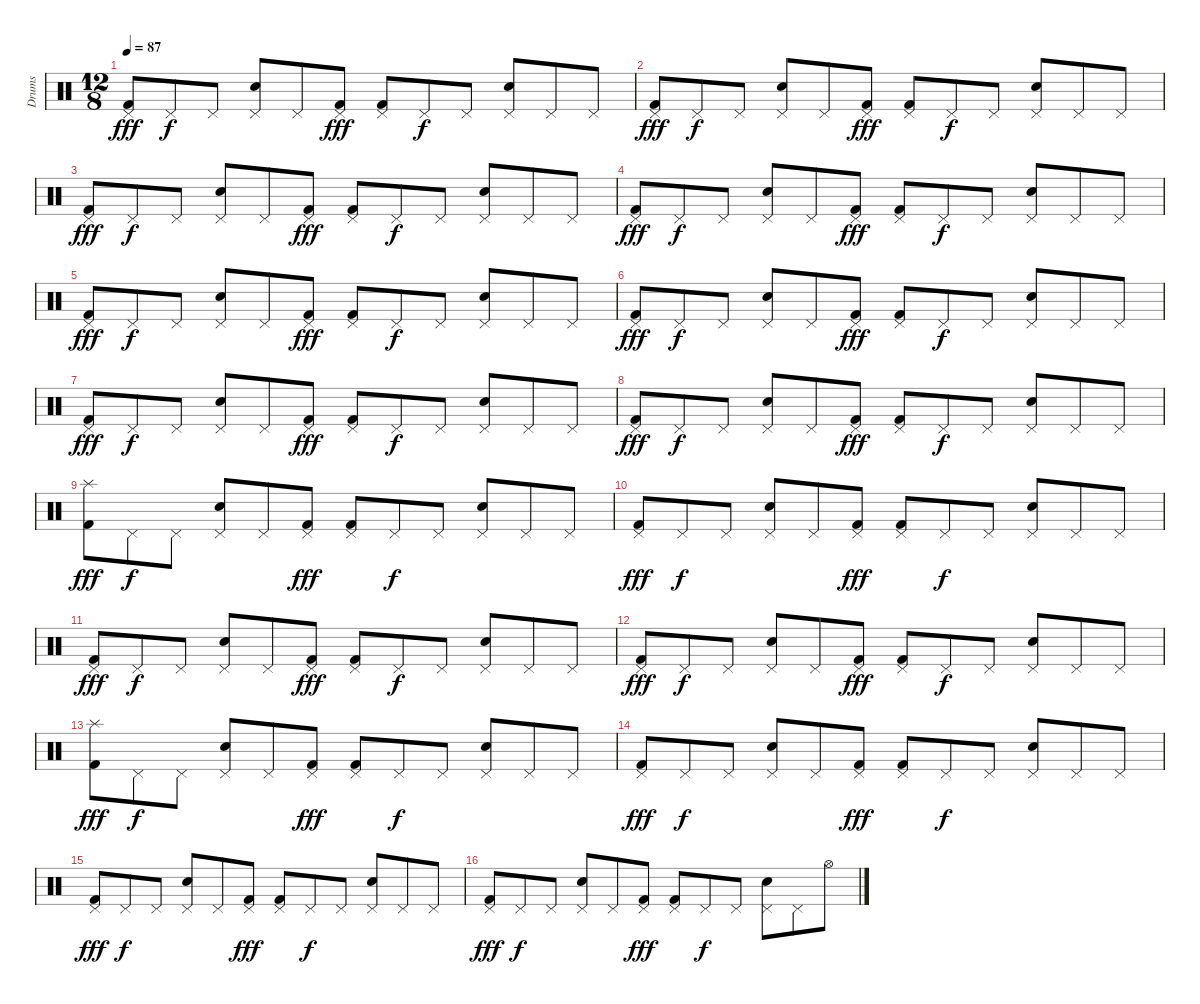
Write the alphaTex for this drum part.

\track ("Drums" "Drums") {instrument percussion}
\staff {score}
\articulation defaults
\ts (12 8)
\tempo 87
\clef neutral
\ks c
("Pedal Hi-Hat (hit)" "Kick (hit) 2").8{dy fff} "Pedal Hi-Hat (hit)".8{dy f} "Pedal Hi-Hat (hit)".8 ("Pedal Hi-Hat (hit)" "Snare (hit) 2").8 "Pedal Hi-Hat (hit)".8 ("Pedal Hi-Hat (hit)" "Kick (hit) 2").8{dy fff} ("Pedal Hi-Hat (hit)" "Kick (hit) 2").8 "Pedal Hi-Hat (hit)".8{dy f} "Pedal Hi-Hat (hit)".8 ("Pedal Hi-Hat (hit)" "Snare (hit) 2").8 "Pedal Hi-Hat (hit)".8 "Pedal Hi-Hat (hit)".8 |
("Pedal Hi-Hat (hit)" "Kick (hit) 2").8{dy fff} "Pedal Hi-Hat (hit)".8{dy f} "Pedal Hi-Hat (hit)".8 ("Pedal Hi-Hat (hit)" "Snare (hit) 2").8 "Pedal Hi-Hat (hit)".8 ("Pedal Hi-Hat (hit)" "Kick (hit) 2").8{dy fff} ("Pedal Hi-Hat (hit)" "Kick (hit) 2").8 "Pedal Hi-Hat (hit)".8{dy f} "Pedal Hi-Hat (hit)".8 ("Pedal Hi-Hat (hit)" "Snare (hit) 2").8 "Pedal Hi-Hat (hit)".8 "Pedal Hi-Hat (hit)".8 |
("Pedal Hi-Hat (hit)" "Kick (hit) 2").8{dy fff} "Pedal Hi-Hat (hit)".8{dy f} "Pedal Hi-Hat (hit)".8 ("Pedal Hi-Hat (hit)" "Snare (hit) 2").8 "Pedal Hi-Hat (hit)".8 ("Pedal Hi-Hat (hit)" "Kick (hit) 2").8{dy fff} ("Pedal Hi-Hat (hit)" "Kick (hit) 2").8 "Pedal Hi-Hat (hit)".8{dy f} "Pedal Hi-Hat (hit)".8 ("Pedal Hi-Hat (hit)" "Snare (hit) 2").8 "Pedal Hi-Hat (hit)".8 "Pedal Hi-Hat (hit)".8 |
("Pedal Hi-Hat (hit)" "Kick (hit) 2").8{dy fff} "Pedal Hi-Hat (hit)".8{dy f} "Pedal Hi-Hat (hit)".8 ("Pedal Hi-Hat (hit)" "Snare (hit) 2").8 "Pedal Hi-Hat (hit)".8 ("Pedal Hi-Hat (hit)" "Kick (hit) 2").8{dy fff} ("Pedal Hi-Hat (hit)" "Kick (hit) 2").8 "Pedal Hi-Hat (hit)".8{dy f} "Pedal Hi-Hat (hit)".8 ("Pedal Hi-Hat (hit)" "Snare (hit) 2").8 "Pedal Hi-Hat (hit)".8 "Pedal Hi-Hat (hit)".8 |
("Pedal Hi-Hat (hit)" "Kick (hit) 2").8{dy fff} "Pedal Hi-Hat (hit)".8{dy f} "Pedal Hi-Hat (hit)".8 ("Pedal Hi-Hat (hit)" "Snare (hit) 2").8 "Pedal Hi-Hat (hit)".8 ("Pedal Hi-Hat (hit)" "Kick (hit) 2").8{dy fff} ("Pedal Hi-Hat (hit)" "Kick (hit) 2").8 "Pedal Hi-Hat (hit)".8{dy f} "Pedal Hi-Hat (hit)".8 ("Pedal Hi-Hat (hit)" "Snare (hit) 2").8 "Pedal Hi-Hat (hit)".8 "Pedal Hi-Hat (hit)".8 |
("Pedal Hi-Hat (hit)" "Kick (hit) 2").8{dy fff} "Pedal Hi-Hat (hit)".8{dy f} "Pedal Hi-Hat (hit)".8 ("Pedal Hi-Hat (hit)" "Snare (hit) 2").8 "Pedal Hi-Hat (hit)".8 ("Pedal Hi-Hat (hit)" "Kick (hit) 2").8{dy fff} ("Pedal Hi-Hat (hit)" "Kick (hit) 2").8 "Pedal Hi-Hat (hit)".8{dy f} "Pedal Hi-Hat (hit)".8 ("Pedal Hi-Hat (hit)" "Snare (hit) 2").8 "Pedal Hi-Hat (hit)".8 "Pedal Hi-Hat (hit)".8 |
("Pedal Hi-Hat (hit)" "Kick (hit) 2").8{dy fff} "Pedal Hi-Hat (hit)".8{dy f} "Pedal Hi-Hat (hit)".8 ("Pedal Hi-Hat (hit)" "Snare (hit) 2").8 "Pedal Hi-Hat (hit)".8 ("Pedal Hi-Hat (hit)" "Kick (hit) 2").8{dy fff} ("Pedal Hi-Hat (hit)" "Kick (hit) 2").8 "Pedal Hi-Hat (hit)".8{dy f} "Pedal Hi-Hat (hit)".8 ("Pedal Hi-Hat (hit)" "Snare (hit) 2").8 "Pedal Hi-Hat (hit)".8 "Pedal Hi-Hat (hit)".8 |
("Pedal Hi-Hat (hit)" "Kick (hit) 2").8{dy fff} "Pedal Hi-Hat (hit)".8{dy f} "Pedal Hi-Hat (hit)".8 ("Pedal Hi-Hat (hit)" "Snare (hit) 2").8 "Pedal Hi-Hat (hit)".8 ("Pedal Hi-Hat (hit)" "Kick (hit) 2").8{dy fff} ("Pedal Hi-Hat (hit)" "Kick (hit) 2").8 "Pedal Hi-Hat (hit)".8{dy f} "Pedal Hi-Hat (hit)".8 ("Pedal Hi-Hat (hit)" "Snare (hit) 2").8 "Pedal Hi-Hat (hit)".8 "Pedal Hi-Hat (hit)".8 |
("Splash (hit)" "Kick (hit) 2").8{dy fff} "Pedal Hi-Hat (hit)".8{dy f} "Pedal Hi-Hat (hit)".8 ("Pedal Hi-Hat (hit)" "Snare (hit) 2").8 "Pedal Hi-Hat (hit)".8 ("Pedal Hi-Hat (hit)" "Kick (hit) 2").8{dy fff} ("Pedal Hi-Hat (hit)" "Kick (hit) 2").8 "Pedal Hi-Hat (hit)".8{dy f} "Pedal Hi-Hat (hit)".8 ("Pedal Hi-Hat (hit)" "Snare (hit) 2").8 "Pedal Hi-Hat (hit)".8 "Pedal Hi-Hat (hit)".8 |
("Pedal Hi-Hat (hit)" "Kick (hit) 2").8{dy fff} "Pedal Hi-Hat (hit)".8{dy f} "Pedal Hi-Hat (hit)".8 ("Pedal Hi-Hat (hit)" "Snare (hit) 2").8 "Pedal Hi-Hat (hit)".8 ("Pedal Hi-Hat (hit)" "Kick (hit) 2").8{dy fff} ("Pedal Hi-Hat (hit)" "Kick (hit) 2").8 "Pedal Hi-Hat (hit)".8{dy f} "Pedal Hi-Hat (hit)".8 ("Pedal Hi-Hat (hit)" "Snare (hit) 2").8 "Pedal Hi-Hat (hit)".8 "Pedal Hi-Hat (hit)".8 |
("Pedal Hi-Hat (hit)" "Kick (hit) 2").8{dy fff} "Pedal Hi-Hat (hit)".8{dy f} "Pedal Hi-Hat (hit)".8 ("Pedal Hi-Hat (hit)" "Snare (hit) 2").8 "Pedal Hi-Hat (hit)".8 ("Pedal Hi-Hat (hit)" "Kick (hit) 2").8{dy fff} ("Pedal Hi-Hat (hit)" "Kick (hit) 2").8 "Pedal Hi-Hat (hit)".8{dy f} "Pedal Hi-Hat (hit)".8 ("Pedal Hi-Hat (hit)" "Snare (hit) 2").8 "Pedal Hi-Hat (hit)".8 "Pedal Hi-Hat (hit)".8 |
("Pedal Hi-Hat (hit)" "Kick (hit) 2").8{dy fff} "Pedal Hi-Hat (hit)".8{dy f} "Pedal Hi-Hat (hit)".8 ("Pedal Hi-Hat (hit)" "Snare (hit) 2").8 "Pedal Hi-Hat (hit)".8 ("Pedal Hi-Hat (hit)" "Kick (hit) 2").8{dy fff} ("Pedal Hi-Hat (hit)" "Kick (hit) 2").8 "Pedal Hi-Hat (hit)".8{dy f} "Pedal Hi-Hat (hit)".8 ("Pedal Hi-Hat (hit)" "Snare (hit) 2").8 "Pedal Hi-Hat (hit)".8 "Pedal Hi-Hat (hit)".8 |
("Splash (hit)" "Kick (hit) 2").8{dy fff} "Pedal Hi-Hat (hit)".8{dy f} "Pedal Hi-Hat (hit)".8 ("Pedal Hi-Hat (hit)" "Snare (hit) 2").8 "Pedal Hi-Hat (hit)".8 ("Pedal Hi-Hat (hit)" "Kick (hit) 2").8{dy fff} ("Pedal Hi-Hat (hit)" "Kick (hit) 2").8 "Pedal Hi-Hat (hit)".8{dy f} "Pedal Hi-Hat (hit)".8 ("Pedal Hi-Hat (hit)" "Snare (hit) 2").8 "Pedal Hi-Hat (hit)".8 "Pedal Hi-Hat (hit)".8 |
("Pedal Hi-Hat (hit)" "Kick (hit) 2").8{dy fff} "Pedal Hi-Hat (hit)".8{dy f} "Pedal Hi-Hat (hit)".8 ("Pedal Hi-Hat (hit)" "Snare (hit) 2").8 "Pedal Hi-Hat (hit)".8 ("Pedal Hi-Hat (hit)" "Kick (hit) 2").8{dy fff} ("Pedal Hi-Hat (hit)" "Kick (hit) 2").8 "Pedal Hi-Hat (hit)".8{dy f} "Pedal Hi-Hat (hit)".8 ("Pedal Hi-Hat (hit)" "Snare (hit) 2").8 "Pedal Hi-Hat (hit)".8 "Pedal Hi-Hat (hit)".8 |
("Pedal Hi-Hat (hit)" "Kick (hit) 2").8{dy fff} "Pedal Hi-Hat (hit)".8{dy f} "Pedal Hi-Hat (hit)".8 ("Pedal Hi-Hat (hit)" "Snare (hit) 2").8 "Pedal Hi-Hat (hit)".8 ("Pedal Hi-Hat (hit)" "Kick (hit) 2").8{dy fff} ("Pedal Hi-Hat (hit)" "Kick (hit) 2").8 "Pedal Hi-Hat (hit)".8{dy f} "Pedal Hi-Hat (hit)".8 ("Pedal Hi-Hat (hit)" "Snare (hit) 2").8 "Pedal Hi-Hat (hit)".8 "Pedal Hi-Hat (hit)".8 |
("Pedal Hi-Hat (hit)" "Kick (hit) 2").8{dy fff} "Pedal Hi-Hat (hit)".8{dy f} "Pedal Hi-Hat (hit)".8 ("Pedal Hi-Hat (hit)" "Snare (hit) 2").8 "Pedal Hi-Hat (hit)".8 ("Pedal Hi-Hat (hit)" "Kick (hit) 2").8{dy fff} ("Pedal Hi-Hat (hit)" "Kick (hit) 2").8 "Pedal Hi-Hat (hit)".8{dy f} "Pedal Hi-Hat (hit)".8 ("Pedal Hi-Hat (hit)" "Snare (hit) 2").8 "Pedal Hi-Hat (hit)".8 "Hi-Hat (open)".8
